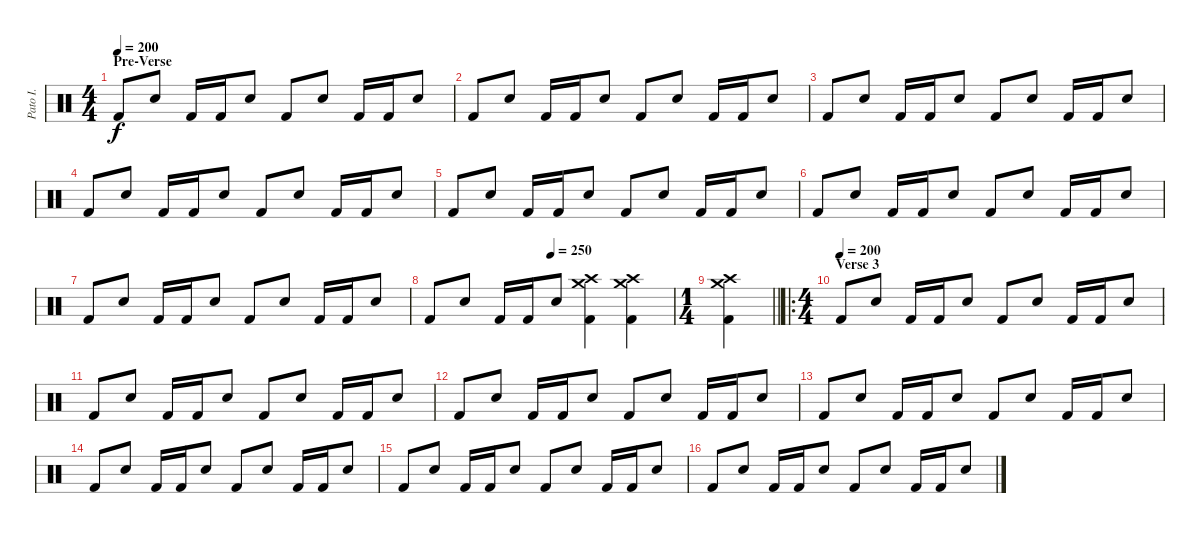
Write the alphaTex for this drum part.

\track ("Pato I." "Pato I.") {instrument percussion}
\staff {score}
\articulation defaults
\ts (4 4)
\section ("" "Pre-Verse")
\tempo 200
\clef neutral
\ks c "Kick (hit) 2".8{dy f} "Snare (hit) 2".8 "Kick (hit) 2".16 "Kick (hit) 2".16 "Snare (hit) 2".8 "Kick (hit) 2".8 "Snare (hit) 2".8 "Kick (hit) 2".16 "Kick (hit) 2".16 "Snare (hit) 2".8
|
"Kick (hit) 2".8 "Snare (hit) 2".8 "Kick (hit) 2".16 "Kick (hit) 2".16 "Snare (hit) 2".8 "Kick (hit) 2".8 "Snare (hit) 2".8 "Kick (hit) 2".16 "Kick (hit) 2".16 "Snare (hit) 2".8 |
"Kick (hit) 2".8 "Snare (hit) 2".8 "Kick (hit) 2".16 "Kick (hit) 2".16 "Snare (hit) 2".8 "Kick (hit) 2".8 "Snare (hit) 2".8 "Kick (hit) 2".16 "Kick (hit) 2".16 "Snare (hit) 2".8 |
"Kick (hit) 2".8 "Snare (hit) 2".8 "Kick (hit) 2".16 "Kick (hit) 2".16 "Snare (hit) 2".8 "Kick (hit) 2".8 "Snare (hit) 2".8 "Kick (hit) 2".16 "Kick (hit) 2".16 "Snare (hit) 2".8 |
"Kick (hit) 2".8 "Snare (hit) 2".8 "Kick (hit) 2".16 "Kick (hit) 2".16 "Snare (hit) 2".8 "Kick (hit) 2".8 "Snare (hit) 2".8 "Kick (hit) 2".16 "Kick (hit) 2".16 "Snare (hit) 2".8 |
"Kick (hit) 2".8 "Snare (hit) 2".8 "Kick (hit) 2".16 "Kick (hit) 2".16 "Snare (hit) 2".8 "Kick (hit) 2".8 "Snare (hit) 2".8 "Kick (hit) 2".16 "Kick (hit) 2".16 "Snare (hit) 2".8 |
"Kick (hit) 2".8 "Snare (hit) 2".8 "Kick (hit) 2".16 "Kick (hit) 2".16 "Snare (hit) 2".8 "Kick (hit) 2".8 "Snare (hit) 2".8 "Kick (hit) 2".16 "Kick (hit) 2".16 "Snare (hit) 2".8 |
\tempo (250 0.5)
"Kick (hit) 2".8 "Snare (hit) 2".8 "Kick (hit) 2".16 "Kick (hit) 2".16 "Snare (hit) 2".8 ("Crash high (hit)" "Crash medium (hit)" "Kick (hit) 2").4 ("Crash high (hit)" "Crash medium (hit)" "Kick (hit) 2").4 |
\ts (1 4)
\barLineRight lightlight
("Crash high (hit)" "Crash medium (hit)" "Kick (hit) 2").4 |
\ro
\ts (4 4)
\section ("" "Verse 3")
\tempo (200)
"Kick (hit) 2".8 "Snare (hit) 2".8 "Kick (hit) 2".16 "Kick (hit) 2".16 "Snare (hit) 2".8 "Kick (hit) 2".8 "Snare (hit) 2".8 "Kick (hit) 2".16 "Kick (hit) 2".16 "Snare (hit) 2".8 |
"Kick (hit) 2".8 "Snare (hit) 2".8 "Kick (hit) 2".16 "Kick (hit) 2".16 "Snare (hit) 2".8 "Kick (hit) 2".8 "Snare (hit) 2".8 "Kick (hit) 2".16 "Kick (hit) 2".16 "Snare (hit) 2".8 |
"Kick (hit) 2".8 "Snare (hit) 2".8 "Kick (hit) 2".16 "Kick (hit) 2".16 "Snare (hit) 2".8 "Kick (hit) 2".8 "Snare (hit) 2".8 "Kick (hit) 2".16 "Kick (hit) 2".16 "Snare (hit) 2".8 |
"Kick (hit) 2".8 "Snare (hit) 2".8 "Kick (hit) 2".16 "Kick (hit) 2".16 "Snare (hit) 2".8 "Kick (hit) 2".8 "Snare (hit) 2".8 "Kick (hit) 2".16 "Kick (hit) 2".16 "Snare (hit) 2".8 |
"Kick (hit) 2".8 "Snare (hit) 2".8 "Kick (hit) 2".16 "Kick (hit) 2".16 "Snare (hit) 2".8 "Kick (hit) 2".8 "Snare (hit) 2".8 "Kick (hit) 2".16 "Kick (hit) 2".16 "Snare (hit) 2".8 |
"Kick (hit) 2".8 "Snare (hit) 2".8 "Kick (hit) 2".16 "Kick (hit) 2".16 "Snare (hit) 2".8 "Kick (hit) 2".8 "Snare (hit) 2".8 "Kick (hit) 2".16 "Kick (hit) 2".16 "Snare (hit) 2".8 |
"Kick (hit) 2".8 "Snare (hit) 2".8 "Kick (hit) 2".16 "Kick (hit) 2".16 "Snare (hit) 2".8 "Kick (hit) 2".8 "Snare (hit) 2".8 "Kick (hit) 2".16 "Kick (hit) 2".16 "Snare (hit) 2".8
